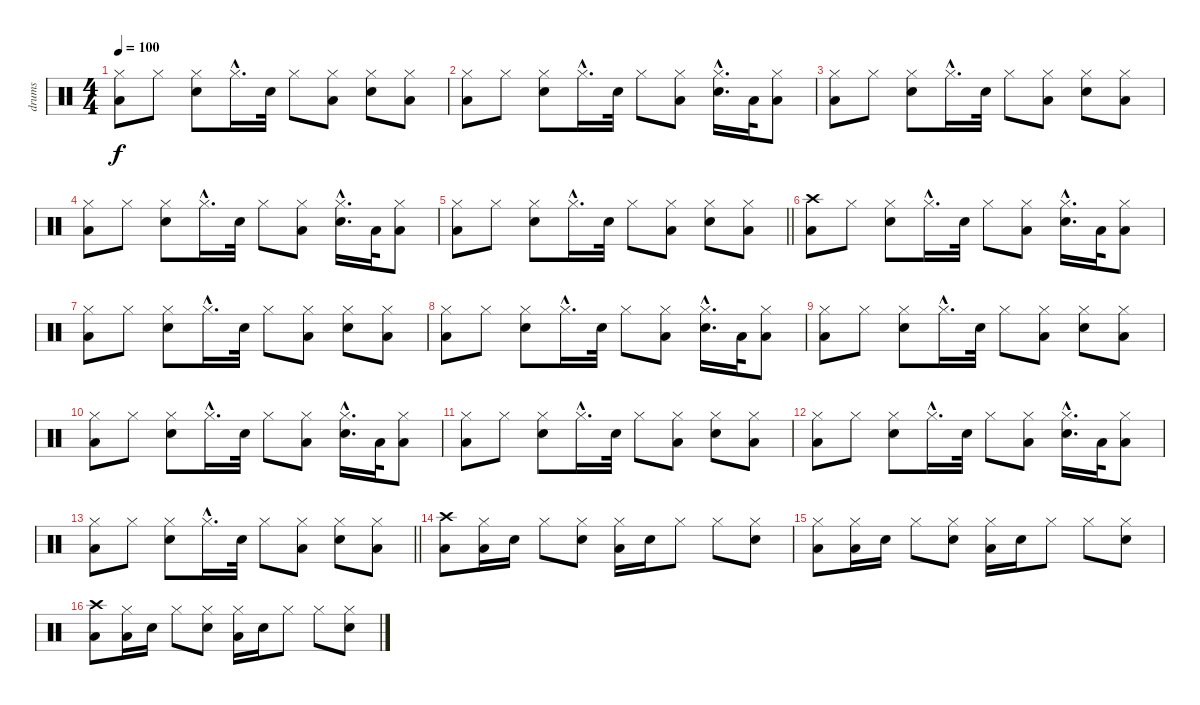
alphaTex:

\track ("drums" "drums") {instrument percussion}
\staff {score}
\articulation defaults
\ts (4 4)
\tempo 100
\clef neutral
\ks c
("Hi-Hat (closed)" "Low Floor Tom (hit)").8{dy f} "Hi-Hat (closed)".8 ("Hi-Hat (closed)" "Electric Snare (hit)").8 "Hi-Hat (closed)"{hac}.16{d} "Electric Snare (hit)".32 "Hi-Hat (closed)".8 ("Hi-Hat (closed)" "Low Floor Tom (hit)").8 ("Hi-Hat (closed)" "Electric Snare (hit)").8 ("Hi-Hat (closed)" "Low Floor Tom (hit)").8 |
("Hi-Hat (closed)" "Low Floor Tom (hit)").8 "Hi-Hat (closed)".8 ("Hi-Hat (closed)" "Electric Snare (hit)").8 "Hi-Hat (closed)"{hac}.16{d} "Electric Snare (hit)".32 "Hi-Hat (closed)".8 ("Hi-Hat (closed)" "Low Floor Tom (hit)").8 ("Hi-Hat (closed)"{hac} "Electric Snare (hit)"{hac}).16{d} "Low Floor Tom (hit)".32 ("Hi-Hat (closed)" "Low Floor Tom (hit)").8 |
("Hi-Hat (closed)" "Low Floor Tom (hit)").8 "Hi-Hat (closed)".8 ("Hi-Hat (closed)" "Electric Snare (hit)").8 "Hi-Hat (closed)"{hac}.16{d} "Electric Snare (hit)".32 "Hi-Hat (closed)".8 ("Hi-Hat (closed)" "Low Floor Tom (hit)").8 ("Hi-Hat (closed)" "Electric Snare (hit)").8 ("Hi-Hat (closed)" "Low Floor Tom (hit)").8 |
("Hi-Hat (closed)" "Low Floor Tom (hit)").8 "Hi-Hat (closed)".8 ("Hi-Hat (closed)" "Electric Snare (hit)").8 "Hi-Hat (closed)"{hac}.16{d} "Electric Snare (hit)".32 "Hi-Hat (closed)".8 ("Hi-Hat (closed)" "Low Floor Tom (hit)").8 ("Hi-Hat (closed)"{hac} "Electric Snare (hit)"{hac}).16{d} "Low Floor Tom (hit)".32 ("Hi-Hat (closed)" "Low Floor Tom (hit)").8 |
\barLineRight lightlight
("Hi-Hat (closed)" "Low Floor Tom (hit)").8 "Hi-Hat (closed)".8 ("Hi-Hat (closed)" "Electric Snare (hit)").8 "Hi-Hat (closed)"{hac}.16{d} "Electric Snare (hit)".32 "Hi-Hat (closed)".8 ("Hi-Hat (closed)" "Low Floor Tom (hit)").8 ("Hi-Hat (closed)" "Electric Snare (hit)").8 ("Hi-Hat (closed)" "Low Floor Tom (hit)").8 |
("Crash high (hit)" "Low Floor Tom (hit)").8 "Hi-Hat (closed)".8 ("Hi-Hat (closed)" "Electric Snare (hit)").8 "Hi-Hat (closed)"{hac}.16{d} "Electric Snare (hit)".32 "Hi-Hat (closed)".8 ("Hi-Hat (closed)" "Low Floor Tom (hit)").8 ("Hi-Hat (closed)"{hac} "Electric Snare (hit)"{hac}).16{d} "Low Floor Tom (hit)".32 ("Hi-Hat (closed)" "Low Floor Tom (hit)").8 |
("Hi-Hat (closed)" "Low Floor Tom (hit)").8 "Hi-Hat (closed)".8 ("Hi-Hat (closed)" "Electric Snare (hit)").8 "Hi-Hat (closed)"{hac}.16{d} "Electric Snare (hit)".32 "Hi-Hat (closed)".8 ("Hi-Hat (closed)" "Low Floor Tom (hit)").8 ("Hi-Hat (closed)" "Electric Snare (hit)").8 ("Hi-Hat (closed)" "Low Floor Tom (hit)").8 |
("Hi-Hat (closed)" "Low Floor Tom (hit)").8 "Hi-Hat (closed)".8 ("Hi-Hat (closed)" "Electric Snare (hit)").8 "Hi-Hat (closed)"{hac}.16{d} "Electric Snare (hit)".32 "Hi-Hat (closed)".8 ("Hi-Hat (closed)" "Low Floor Tom (hit)").8 ("Hi-Hat (closed)"{hac} "Electric Snare (hit)"{hac}).16{d} "Low Floor Tom (hit)".32 ("Hi-Hat (closed)" "Low Floor Tom (hit)").8 |
("Hi-Hat (closed)" "Low Floor Tom (hit)").8 "Hi-Hat (closed)".8 ("Hi-Hat (closed)" "Electric Snare (hit)").8 "Hi-Hat (closed)"{hac}.16{d} "Electric Snare (hit)".32 "Hi-Hat (closed)".8 ("Hi-Hat (closed)" "Low Floor Tom (hit)").8 ("Hi-Hat (closed)" "Electric Snare (hit)").8 ("Hi-Hat (closed)" "Low Floor Tom (hit)").8 |
("Hi-Hat (closed)" "Low Floor Tom (hit)").8 "Hi-Hat (closed)".8 ("Hi-Hat (closed)" "Electric Snare (hit)").8 "Hi-Hat (closed)"{hac}.16{d} "Electric Snare (hit)".32 "Hi-Hat (closed)".8 ("Hi-Hat (closed)" "Low Floor Tom (hit)").8 ("Hi-Hat (closed)"{hac} "Electric Snare (hit)"{hac}).16{d} "Low Floor Tom (hit)".32 ("Hi-Hat (closed)" "Low Floor Tom (hit)").8 |
("Hi-Hat (closed)" "Low Floor Tom (hit)").8 "Hi-Hat (closed)".8 ("Hi-Hat (closed)" "Electric Snare (hit)").8 "Hi-Hat (closed)"{hac}.16{d} "Electric Snare (hit)".32 "Hi-Hat (closed)".8 ("Hi-Hat (closed)" "Low Floor Tom (hit)").8 ("Hi-Hat (closed)" "Electric Snare (hit)").8 ("Hi-Hat (closed)" "Low Floor Tom (hit)").8 |
("Hi-Hat (closed)" "Low Floor Tom (hit)").8 "Hi-Hat (closed)".8 ("Hi-Hat (closed)" "Electric Snare (hit)").8 "Hi-Hat (closed)"{hac}.16{d} "Electric Snare (hit)".32 "Hi-Hat (closed)".8 ("Hi-Hat (closed)" "Low Floor Tom (hit)").8 ("Hi-Hat (closed)"{hac} "Electric Snare (hit)"{hac}).16{d} "Low Floor Tom (hit)".32 ("Hi-Hat (closed)" "Low Floor Tom (hit)").8 |
\barLineRight lightlight
("Hi-Hat (closed)" "Low Floor Tom (hit)").8 "Hi-Hat (closed)".8 ("Hi-Hat (closed)" "Electric Snare (hit)").8 "Hi-Hat (closed)"{hac}.16{d} "Electric Snare (hit)".32 "Hi-Hat (closed)".8 ("Hi-Hat (closed)" "Low Floor Tom (hit)").8 ("Hi-Hat (closed)" "Electric Snare (hit)").8 ("Hi-Hat (closed)" "Low Floor Tom (hit)").8 |
("Crash high (hit)" "Low Floor Tom (hit)").8 ("Hi-Hat (closed)" "Low Floor Tom (hit)").16 "Electric Snare (hit)".16 "Hi-Hat (closed)".8 ("Hi-Hat (closed)" "Electric Snare (hit)").8 ("Hi-Hat (closed)" "Low Floor Tom (hit)").16 "Electric Snare (hit)".16 "Hi-Hat (closed)".8 "Hi-Hat (closed)".8 ("Hi-Hat (closed)" "Electric Snare (hit)").8 |
("Hi-Hat (closed)" "Low Floor Tom (hit)").8 ("Hi-Hat (closed)" "Low Floor Tom (hit)").16 "Electric Snare (hit)".16 "Hi-Hat (closed)".8 ("Hi-Hat (closed)" "Electric Snare (hit)").8 ("Hi-Hat (closed)" "Low Floor Tom (hit)").16 "Electric Snare (hit)".16 "Hi-Hat (closed)".8 "Hi-Hat (closed)".8 ("Hi-Hat (closed)" "Electric Snare (hit)").8 |
("Crash high (hit)" "Low Floor Tom (hit)").8 ("Hi-Hat (closed)" "Low Floor Tom (hit)").16 "Electric Snare (hit)".16 "Hi-Hat (closed)".8 ("Hi-Hat (closed)" "Electric Snare (hit)").8 ("Hi-Hat (closed)" "Low Floor Tom (hit)").16 "Electric Snare (hit)".16 "Hi-Hat (closed)".8 "Hi-Hat (closed)".8 ("Hi-Hat (closed)" "Electric Snare (hit)").8
